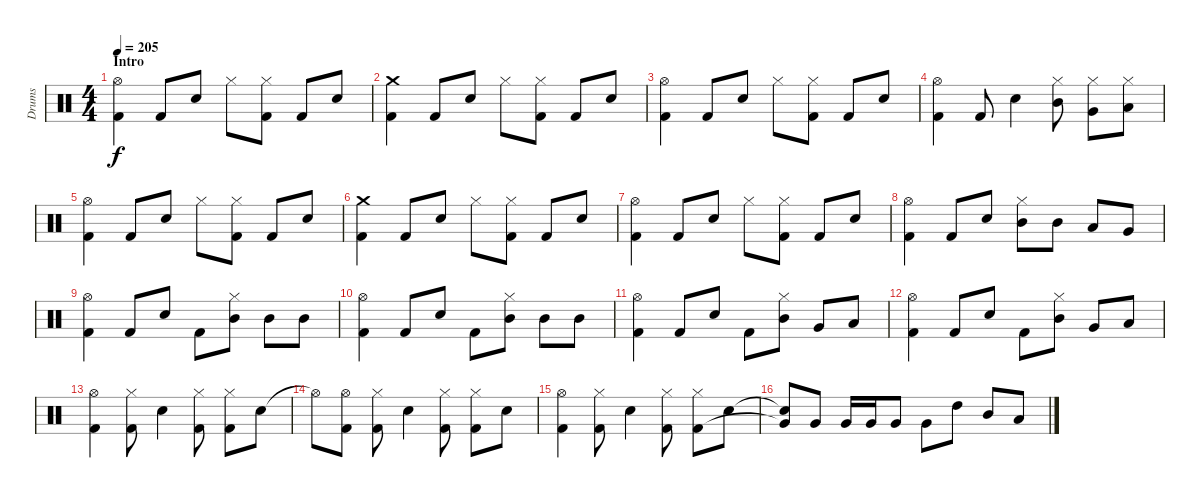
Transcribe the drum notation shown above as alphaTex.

\track ("Drums" "Drums") {instrument percussion}
\staff {score}
\articulation defaults
\ts (4 4)
\section ("" "Intro")
\tempo 205
\clef neutral
\ks c
("Hi-Hat (open)" "Kick (hit) 2").4{dy f} "Kick (hit) 2".8 "Electric Snare (hit)".8 "Hi-Hat (closed)".8 ("Hi-Hat (closed)" "Kick (hit) 2").8 "Kick (hit) 2".8 "Electric Snare (hit)".8 |
("Crash medium (hit)" "Kick (hit) 2").4 "Kick (hit) 2".8 "Electric Snare (hit)".8 "Hi-Hat (closed)".8 ("Hi-Hat (closed)" "Kick (hit) 2").8 "Kick (hit) 2".8 "Electric Snare (hit)".8 |
("Hi-Hat (open)" "Kick (hit) 2").4 "Kick (hit) 2".8 "Electric Snare (hit)".8 "Hi-Hat (closed)".8 ("Hi-Hat (closed)" "Kick (hit) 2").8 "Kick (hit) 2".8 "Electric Snare (hit)".8 |
("Hi-Hat (open)" "Kick (hit) 2").4 "Kick (hit) 2".8 "Electric Snare (hit)".4 ("Hi-Hat (closed)" "Mid Tom (hit)").8 ("Hi-Hat (closed)" "Very Low Tom (hit)").8 ("Hi-Hat (closed)" "Low Tom (hit)").8 |
("Hi-Hat (open)" "Kick (hit) 2").4 "Kick (hit) 2".8 "Electric Snare (hit)".8 "Hi-Hat (closed)".8 ("Hi-Hat (closed)" "Kick (hit) 2").8 "Kick (hit) 2".8 "Electric Snare (hit)".8 |
("Crash medium (hit)" "Kick (hit) 2").4 "Kick (hit) 2".8 "Electric Snare (hit)".8 "Hi-Hat (closed)".8 ("Hi-Hat (closed)" "Kick (hit) 2").8 "Kick (hit) 2".8 "Electric Snare (hit)".8 |
("Hi-Hat (open)" "Kick (hit) 2").4 "Kick (hit) 2".8 "Electric Snare (hit)".8 "Hi-Hat (closed)".8 ("Hi-Hat (closed)" "Kick (hit) 2").8 "Kick (hit) 2".8 "Electric Snare (hit)".8 |
("Hi-Hat (open)" "Kick (hit) 2").4 "Kick (hit) 2".8 "Electric Snare (hit)".8 ("Hi-Hat (closed)" "Mid Tom (hit)").8 "Mid Tom (hit)".8 "Low Tom (hit)".8 "Very Low Tom (hit)".8 |
("Hi-Hat (open)" "Kick (hit) 2").4 "Kick (hit) 2".8 "Electric Snare (hit)".8 "Kick (hit) 2".8 ("Hi-Hat (closed)" "Mid Tom (hit)").8 "Mid Tom (hit)".8 "Mid Tom (hit)".8 |
("Hi-Hat (open)" "Kick (hit) 2").4 "Kick (hit) 2".8 "Electric Snare (hit)".8 "Kick (hit) 2".8 ("Hi-Hat (closed)" "Mid Tom (hit)").8 "Mid Tom (hit)".8 "Mid Tom (hit)".8 |
("Hi-Hat (open)" "Kick (hit) 2").4 "Kick (hit) 2".8 "Electric Snare (hit)".8 "Kick (hit) 2".8 ("Hi-Hat (closed)" "Mid Tom (hit)").8 "Very Low Tom (hit)".8 "Low Tom (hit)".8 |
("Hi-Hat (open)" "Kick (hit) 2").4 "Kick (hit) 2".8 "Electric Snare (hit)".8 "Kick (hit) 2".8 ("Hi-Hat (closed)" "Mid Tom (hit)").8 "Very Low Tom (hit)".8 "Low Tom (hit)".8 |
("Hi-Hat (open)" "Kick (hit) 2").4 ("Hi-Hat (closed)" "Kick (hit) 2").8 "Electric Snare (hit)".4 ("Hi-Hat (closed)" "Kick (hit) 2").8 ("Hi-Hat (closed)" "Kick (hit) 2").8 "Electric Snare (hit)".8 |
"Hi-Hat (open)"{t}.8 ("Hi-Hat (open)" "Kick (hit) 2").8 ("Hi-Hat (closed)" "Kick (hit) 2").8 "Electric Snare (hit)".4 ("Hi-Hat (closed)" "Kick (hit) 2").8 ("Hi-Hat (closed)" "Kick (hit) 2").8 "Electric Snare (hit)".8 |
("Hi-Hat (open)" "Kick (hit) 2").4 ("Hi-Hat (closed)" "Kick (hit) 2").8 "Electric Snare (hit)".4 ("Hi-Hat (closed)" "Kick (hit) 2").8 ("Hi-Hat (closed)" "Kick (hit) 2").8 "Electric Snare (hit)".8 |
("Snare (hit)"{t} "Very Low Tom (hit)"{t}).8 "Very Low Tom (hit)".8 "Very Low Tom (hit)".16 "Very Low Tom (hit)".16 "Very Low Tom (hit)".8 "Very Low Tom (hit)".8 "High Tom (hit)".8 "Mid Tom (hit)".8 "Low Tom (hit)".8
